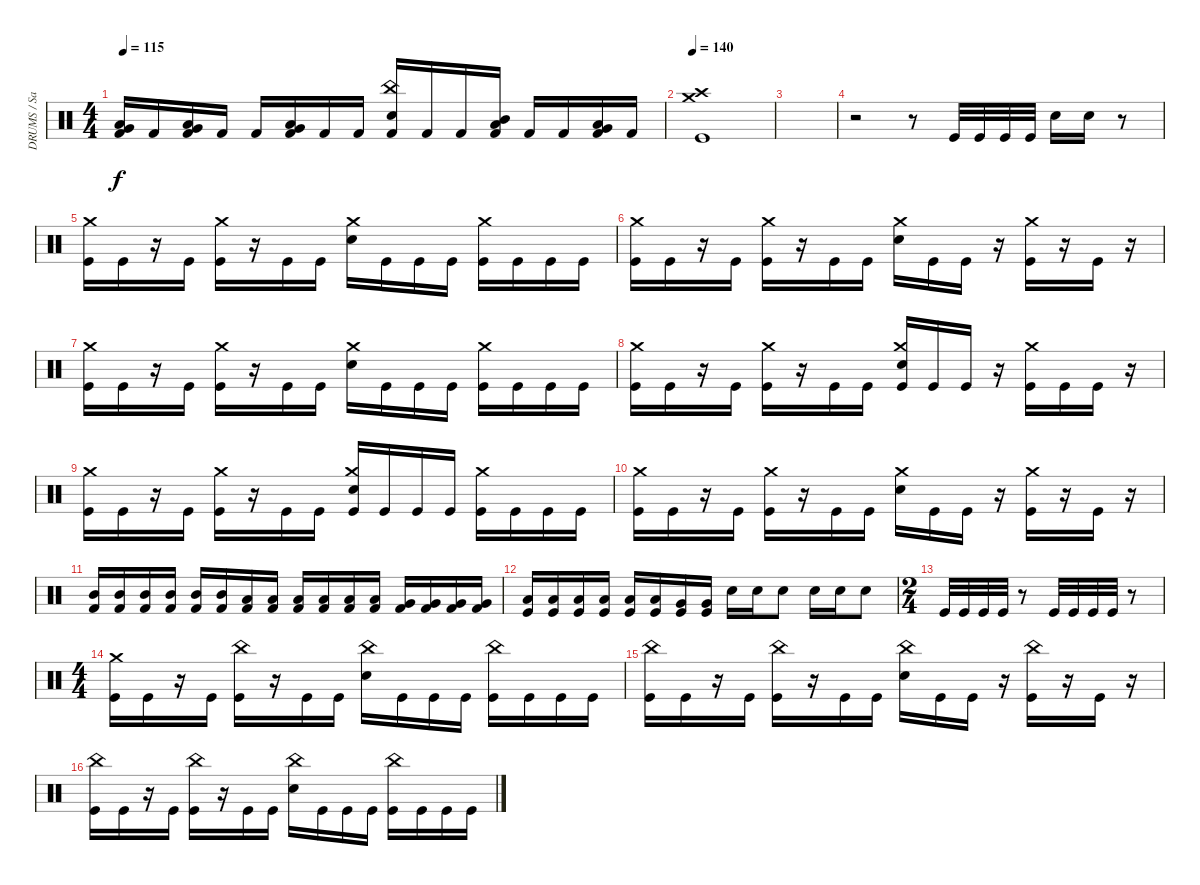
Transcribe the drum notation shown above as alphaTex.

\track ("DRUMS / Sasha" "DRUMS / Sa") {instrument percussion}
\staff {score}
\articulation defaults
\ts (4 4)
\tempo 115
\clef neutral
\ks c
("Very Low Tom (hit)" "Low Tom (hit)" "Kick (hit) 2").16{dy f} "Kick (hit) 2".16 ("Very Low Tom (hit)" "Low Tom (hit)" "Kick (hit) 2").16 "Kick (hit) 2".16 "Kick (hit) 2".16 ("Very Low Tom (hit)" "Low Tom (hit)" "Kick (hit) 2").16 "Kick (hit) 2".16 "Kick (hit) 2".16 ("China (hit)" "Electric Snare (hit)" "Kick (hit) 2").16 "Kick (hit) 2".16 "Kick (hit) 2".16 ("Mid Tom (hit)" "Low Tom (hit)" "Kick (hit) 2").16 "Kick (hit) 2".16 "Kick (hit) 2".16 ("Low Tom (hit)" "Very Low Tom (hit)" "Kick (hit) 2").16 "Kick (hit) 2".16 |
\tempo 140
("Kick (hit)" "Crash high (hit)" "Crash medium (hit)").1 |
|
r.2 r.8 "Kick (hit)".32 "Kick (hit)".32 "Kick (hit)".32 "Kick (hit)".32 "Snare (hit) 2".16 "Snare (hit) 2".16 r.8 |
("Kick (hit)" "Crash medium (hit)").16 "Kick (hit)".16 r.16 "Kick (hit)".16 ("Kick (hit)" "Crash medium (hit)").16 r.16 "Kick (hit)".16 "Kick (hit)".16 ("Crash medium (hit)" "Snare (hit) 2").16 "Kick (hit)".16 "Kick (hit)".16 "Kick (hit)".16 ("Kick (hit)" "Crash medium (hit)").16 "Kick (hit)".16 "Kick (hit)".16 "Kick (hit)".16 |
("Kick (hit)" "Crash medium (hit)").16 "Kick (hit)".16 r.16 "Kick (hit)".16 ("Kick (hit)" "Crash medium (hit)").16 r.16 "Kick (hit)".16 "Kick (hit)".16 ("Crash medium (hit)" "Snare (hit) 2").16 "Kick (hit)".16 "Kick (hit)".16 r.16 ("Kick (hit)" "Crash medium (hit)").16 r.16 "Kick (hit)".16 r.16 |
("Kick (hit)" "Crash medium (hit)").16 "Kick (hit)".16 r.16 "Kick (hit)".16 ("Kick (hit)" "Crash medium (hit)").16 r.16 "Kick (hit)".16 "Kick (hit)".16 ("Crash medium (hit)" "Snare (hit) 2").16 "Kick (hit)".16 "Kick (hit)".16 "Kick (hit)".16 ("Kick (hit)" "Crash medium (hit)").16 "Kick (hit)".16 "Kick (hit)".16 "Kick (hit)".16 |
("Kick (hit)" "Crash medium (hit)").16 "Kick (hit)".16 r.16 "Kick (hit)".16 ("Kick (hit)" "Crash medium (hit)").16 r.16 "Kick (hit)".16 "Kick (hit)".16 ("Kick (hit)" "Crash medium (hit)" "Snare (hit) 2").16 "Kick (hit)".16 "Kick (hit)".16 r.16 ("Kick (hit)" "Crash medium (hit)").16 "Kick (hit)".16 "Kick (hit)".16 r.16 |
("Kick (hit)" "Crash medium (hit)").16 "Kick (hit)".16 r.16 "Kick (hit)".16 ("Kick (hit)" "Crash medium (hit)").16 r.16 "Kick (hit)".16 "Kick (hit)".16 ("Kick (hit)" "Crash medium (hit)" "Snare (hit) 2").16 "Kick (hit)".16 "Kick (hit)".16 "Kick (hit)".16 ("Kick (hit)" "Crash medium (hit)").16 "Kick (hit)".16 "Kick (hit)".16 "Kick (hit)".16 |
("Kick (hit)" "Crash medium (hit)").16 "Kick (hit)".16 r.16 "Kick (hit)".16 ("Kick (hit)" "Crash medium (hit)").16 r.16 "Kick (hit)".16 "Kick (hit)".16 ("Crash medium (hit)" "Snare (hit) 2").16 "Kick (hit)".16 "Kick (hit)".16 r.16 ("Kick (hit)" "Crash medium (hit)").16 r.16 "Kick (hit)".16 r.16 |
("Mid Tom (hit)" "Kick (hit) 2").16 ("Mid Tom (hit)" "Kick (hit) 2").16 ("Mid Tom (hit)" "Kick (hit) 2").16 ("Mid Tom (hit)" "Kick (hit) 2").16 ("Mid Tom (hit)" "Kick (hit) 2").16 ("Mid Tom (hit)" "Kick (hit) 2").16 ("Low Tom (hit)" "Kick (hit) 2").16 ("Low Tom (hit)" "Kick (hit) 2").16 ("Low Tom (hit)" "Kick (hit) 2").16 ("Low Tom (hit)" "Kick (hit) 2").16 ("Low Tom (hit)" "Kick (hit) 2").16 ("Low Tom (hit)" "Kick (hit) 2").16 ("Very Low Tom (hit)" "Kick (hit) 2").16 ("Very Low Tom (hit)" "Kick (hit) 2").16 ("Very Low Tom (hit)" "Kick (hit) 2").16 ("Very Low Tom (hit)" "Kick (hit) 2").16 |
("Kick (hit)" "Low Tom (hit)").16 ("Kick (hit)" "Low Tom (hit)").16 ("Kick (hit)" "Low Tom (hit)").16 ("Kick (hit)" "Low Tom (hit)").16 ("Kick (hit)" "Low Tom (hit)").16 ("Kick (hit)" "Low Tom (hit)").16 ("Kick (hit)" "Very Low Tom (hit)").16 ("Kick (hit)" "Very Low Tom (hit)").16 "Snare (hit) 2".16 "Snare (hit) 2".16 "Snare (hit) 2".8 "Snare (hit) 2".16 "Snare (hit) 2".16 "Snare (hit) 2".8 |
\ts (2 4)
"Kick (hit)".32 "Kick (hit)".32 "Kick (hit)".32 "Kick (hit)".32 r.8 "Kick (hit)".32 "Kick (hit)".32 "Kick (hit)".32 "Kick (hit)".32 r.8 |
\ts (4 4)
("Kick (hit)" "Crash medium (hit)").16 "Kick (hit)".16 r.16 "Kick (hit)".16 ("Kick (hit)" "China (hit)").16 r.16 "Kick (hit)".16 "Kick (hit)".16 ("Snare (hit) 2" "China (hit)").16 "Kick (hit)".16 "Kick (hit)".16 "Kick (hit)".16 ("Kick (hit)" "China (hit)").16 "Kick (hit)".16 "Kick (hit)".16 "Kick (hit)".16 |
("Kick (hit)" "China (hit)").16 "Kick (hit)".16 r.16 "Kick (hit)".16 ("Kick (hit)" "China (hit)").16 r.16 "Kick (hit)".16 "Kick (hit)".16 ("Snare (hit) 2" "China (hit)").16 "Kick (hit)".16 "Kick (hit)".16 r.16 ("Kick (hit)" "China (hit)").16 r.16 "Kick (hit)".16 r.16 |
("Kick (hit)" "China (hit)").16 "Kick (hit)".16 r.16 "Kick (hit)".16 ("Kick (hit)" "China (hit)").16 r.16 "Kick (hit)".16 "Kick (hit)".16 ("Snare (hit) 2" "China (hit)").16 "Kick (hit)".16 "Kick (hit)".16 "Kick (hit)".16 ("Kick (hit)" "China (hit)").16 "Kick (hit)".16 "Kick (hit)".16 "Kick (hit)".16
